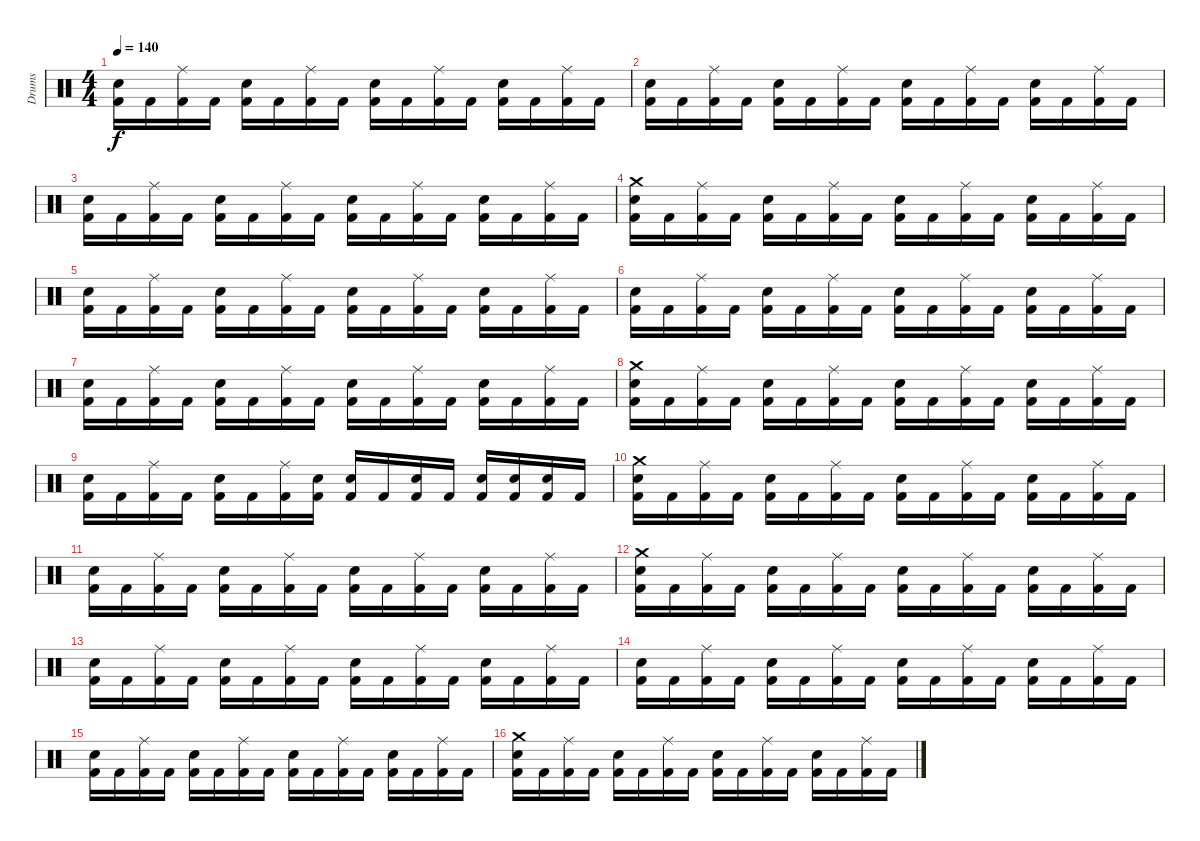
\track ("Drums" "Drums") {instrument percussion}
\staff {score}
\articulation defaults
\ts (4 4)
\tempo 140
\clef neutral
\ks c
("Electric Snare (hit)" "Kick (hit) 2").16{dy f} "Kick (hit) 2".16 ("Ride (middle)" "Kick (hit) 2").16 "Kick (hit) 2".16 ("Electric Snare (hit)" "Kick (hit) 2").16 "Kick (hit) 2".16 ("Ride (middle)" "Kick (hit) 2").16 "Kick (hit) 2".16 ("Electric Snare (hit)" "Kick (hit) 2").16 "Kick (hit) 2".16 ("Ride (middle)" "Kick (hit) 2").16 "Kick (hit) 2".16 ("Electric Snare (hit)" "Kick (hit) 2").16 "Kick (hit) 2".16 ("Ride (middle)" "Kick (hit) 2").16 "Kick (hit) 2".16 |
("Electric Snare (hit)" "Kick (hit) 2").16 "Kick (hit) 2".16 ("Ride (middle)" "Kick (hit) 2").16 "Kick (hit) 2".16 ("Electric Snare (hit)" "Kick (hit) 2").16 "Kick (hit) 2".16 ("Ride (middle)" "Kick (hit) 2").16 "Kick (hit) 2".16 ("Electric Snare (hit)" "Kick (hit) 2").16 "Kick (hit) 2".16 ("Ride (middle)" "Kick (hit) 2").16 "Kick (hit) 2".16 ("Electric Snare (hit)" "Kick (hit) 2").16 "Kick (hit) 2".16 ("Ride (middle)" "Kick (hit) 2").16 "Kick (hit) 2".16 |
("Electric Snare (hit)" "Kick (hit) 2").16 "Kick (hit) 2".16 ("Ride (middle)" "Kick (hit) 2").16 "Kick (hit) 2".16 ("Electric Snare (hit)" "Kick (hit) 2").16 "Kick (hit) 2".16 ("Ride (middle)" "Kick (hit) 2").16 "Kick (hit) 2".16 ("Electric Snare (hit)" "Kick (hit) 2").16 "Kick (hit) 2".16 ("Ride (middle)" "Kick (hit) 2").16 "Kick (hit) 2".16 ("Electric Snare (hit)" "Kick (hit) 2").16 "Kick (hit) 2".16 ("Ride (middle)" "Kick (hit) 2").16 "Kick (hit) 2".16 |
("Crash medium (hit)" "Electric Snare (hit)" "Kick (hit) 2").16 "Kick (hit) 2".16 ("Ride (middle)" "Kick (hit) 2").16 "Kick (hit) 2".16 ("Electric Snare (hit)" "Kick (hit) 2").16 "Kick (hit) 2".16 ("Ride (middle)" "Kick (hit) 2").16 "Kick (hit) 2".16 ("Electric Snare (hit)" "Kick (hit) 2").16 "Kick (hit) 2".16 ("Ride (middle)" "Kick (hit) 2").16 "Kick (hit) 2".16 ("Electric Snare (hit)" "Kick (hit) 2").16 "Kick (hit) 2".16 ("Ride (middle)" "Kick (hit) 2").16 "Kick (hit) 2".16 |
("Electric Snare (hit)" "Kick (hit) 2").16 "Kick (hit) 2".16 ("Ride (middle)" "Kick (hit) 2").16 "Kick (hit) 2".16 ("Electric Snare (hit)" "Kick (hit) 2").16 "Kick (hit) 2".16 ("Ride (middle)" "Kick (hit) 2").16 "Kick (hit) 2".16 ("Electric Snare (hit)" "Kick (hit) 2").16 "Kick (hit) 2".16 ("Ride (middle)" "Kick (hit) 2").16 "Kick (hit) 2".16 ("Electric Snare (hit)" "Kick (hit) 2").16 "Kick (hit) 2".16 ("Ride (middle)" "Kick (hit) 2").16 "Kick (hit) 2".16 |
("Electric Snare (hit)" "Kick (hit) 2").16 "Kick (hit) 2".16 ("Ride (middle)" "Kick (hit) 2").16 "Kick (hit) 2".16 ("Electric Snare (hit)" "Kick (hit) 2").16 "Kick (hit) 2".16 ("Ride (middle)" "Kick (hit) 2").16 "Kick (hit) 2".16 ("Electric Snare (hit)" "Kick (hit) 2").16 "Kick (hit) 2".16 ("Ride (middle)" "Kick (hit) 2").16 "Kick (hit) 2".16 ("Electric Snare (hit)" "Kick (hit) 2").16 "Kick (hit) 2".16 ("Ride (middle)" "Kick (hit) 2").16 "Kick (hit) 2".16 |
("Electric Snare (hit)" "Kick (hit) 2").16 "Kick (hit) 2".16 ("Ride (middle)" "Kick (hit) 2").16 "Kick (hit) 2".16 ("Electric Snare (hit)" "Kick (hit) 2").16 "Kick (hit) 2".16 ("Ride (middle)" "Kick (hit) 2").16 "Kick (hit) 2".16 ("Electric Snare (hit)" "Kick (hit) 2").16 "Kick (hit) 2".16 ("Ride (middle)" "Kick (hit) 2").16 "Kick (hit) 2".16 ("Electric Snare (hit)" "Kick (hit) 2").16 "Kick (hit) 2".16 ("Ride (middle)" "Kick (hit) 2").16 "Kick (hit) 2".16 |
("Crash medium (hit)" "Electric Snare (hit)" "Kick (hit) 2").16 "Kick (hit) 2".16 ("Ride (middle)" "Kick (hit) 2").16 "Kick (hit) 2".16 ("Electric Snare (hit)" "Kick (hit) 2").16 "Kick (hit) 2".16 ("Ride (middle)" "Kick (hit) 2").16 "Kick (hit) 2".16 ("Electric Snare (hit)" "Kick (hit) 2").16 "Kick (hit) 2".16 ("Ride (middle)" "Kick (hit) 2").16 "Kick (hit) 2".16 ("Electric Snare (hit)" "Kick (hit) 2").16 "Kick (hit) 2".16 ("Ride (middle)" "Kick (hit) 2").16 "Kick (hit) 2".16 |
("Electric Snare (hit)" "Kick (hit) 2").16 "Kick (hit) 2".16 ("Ride (middle)" "Kick (hit) 2").16 "Kick (hit) 2".16 ("Electric Snare (hit)" "Kick (hit) 2").16 "Kick (hit) 2".16 ("Ride (middle)" "Kick (hit) 2").16 ("Electric Snare (hit)" "Kick (hit) 2").16 ("Electric Snare (hit)" "Kick (hit) 2").16 "Kick (hit) 2".16 ("Electric Snare (hit)" "Kick (hit) 2").16 "Kick (hit) 2".16 ("Electric Snare (hit)" "Kick (hit) 2").16 ("Electric Snare (hit)" "Kick (hit) 2").16 ("Electric Snare (hit)" "Kick (hit) 2").16 "Kick (hit) 2".16 |
("Crash medium (hit)" "Electric Snare (hit)" "Kick (hit) 2").16 "Kick (hit) 2".16 ("Ride (middle)" "Kick (hit) 2").16 "Kick (hit) 2".16 ("Electric Snare (hit)" "Kick (hit) 2").16 "Kick (hit) 2".16 ("Ride (middle)" "Kick (hit) 2").16 "Kick (hit) 2".16 ("Electric Snare (hit)" "Kick (hit) 2").16 "Kick (hit) 2".16 ("Ride (middle)" "Kick (hit) 2").16 "Kick (hit) 2".16 ("Electric Snare (hit)" "Kick (hit) 2").16 "Kick (hit) 2".16 ("Ride (middle)" "Kick (hit) 2").16 "Kick (hit) 2".16 |
("Electric Snare (hit)" "Kick (hit) 2").16 "Kick (hit) 2".16 ("Ride (middle)" "Kick (hit) 2").16 "Kick (hit) 2".16 ("Electric Snare (hit)" "Kick (hit) 2").16 "Kick (hit) 2".16 ("Ride (middle)" "Kick (hit) 2").16 "Kick (hit) 2".16 ("Electric Snare (hit)" "Kick (hit) 2").16 "Kick (hit) 2".16 ("Ride (middle)" "Kick (hit) 2").16 "Kick (hit) 2".16 ("Electric Snare (hit)" "Kick (hit) 2").16 "Kick (hit) 2".16 ("Ride (middle)" "Kick (hit) 2").16 "Kick (hit) 2".16 |
("Crash medium (hit)" "Electric Snare (hit)" "Kick (hit) 2").16 "Kick (hit) 2".16 ("Ride (middle)" "Kick (hit) 2").16 "Kick (hit) 2".16 ("Electric Snare (hit)" "Kick (hit) 2").16 "Kick (hit) 2".16 ("Ride (middle)" "Kick (hit) 2").16 "Kick (hit) 2".16 ("Electric Snare (hit)" "Kick (hit) 2").16 "Kick (hit) 2".16 ("Ride (middle)" "Kick (hit) 2").16 "Kick (hit) 2".16 ("Electric Snare (hit)" "Kick (hit) 2").16 "Kick (hit) 2".16 ("Ride (middle)" "Kick (hit) 2").16 "Kick (hit) 2".16 |
("Electric Snare (hit)" "Kick (hit) 2").16 "Kick (hit) 2".16 ("Ride (middle)" "Kick (hit) 2").16 "Kick (hit) 2".16 ("Electric Snare (hit)" "Kick (hit) 2").16 "Kick (hit) 2".16 ("Ride (middle)" "Kick (hit) 2").16 "Kick (hit) 2".16 ("Electric Snare (hit)" "Kick (hit) 2").16 "Kick (hit) 2".16 ("Ride (middle)" "Kick (hit) 2").16 "Kick (hit) 2".16 ("Electric Snare (hit)" "Kick (hit) 2").16 "Kick (hit) 2".16 ("Ride (middle)" "Kick (hit) 2").16 "Kick (hit) 2".16 |
("Electric Snare (hit)" "Kick (hit) 2").16 "Kick (hit) 2".16 ("Ride (middle)" "Kick (hit) 2").16 "Kick (hit) 2".16 ("Electric Snare (hit)" "Kick (hit) 2").16 "Kick (hit) 2".16 ("Ride (middle)" "Kick (hit) 2").16 "Kick (hit) 2".16 ("Electric Snare (hit)" "Kick (hit) 2").16 "Kick (hit) 2".16 ("Ride (middle)" "Kick (hit) 2").16 "Kick (hit) 2".16 ("Electric Snare (hit)" "Kick (hit) 2").16 "Kick (hit) 2".16 ("Ride (middle)" "Kick (hit) 2").16 "Kick (hit) 2".16 |
("Electric Snare (hit)" "Kick (hit) 2").16 "Kick (hit) 2".16 ("Ride (middle)" "Kick (hit) 2").16 "Kick (hit) 2".16 ("Electric Snare (hit)" "Kick (hit) 2").16 "Kick (hit) 2".16 ("Ride (middle)" "Kick (hit) 2").16 "Kick (hit) 2".16 ("Electric Snare (hit)" "Kick (hit) 2").16 "Kick (hit) 2".16 ("Ride (middle)" "Kick (hit) 2").16 "Kick (hit) 2".16 ("Electric Snare (hit)" "Kick (hit) 2").16 "Kick (hit) 2".16 ("Ride (middle)" "Kick (hit) 2").16 "Kick (hit) 2".16 |
("Crash medium (hit)" "Electric Snare (hit)" "Kick (hit) 2").16 "Kick (hit) 2".16 ("Ride (middle)" "Kick (hit) 2").16 "Kick (hit) 2".16 ("Electric Snare (hit)" "Kick (hit) 2").16 "Kick (hit) 2".16 ("Ride (middle)" "Kick (hit) 2").16 "Kick (hit) 2".16 ("Electric Snare (hit)" "Kick (hit) 2").16 "Kick (hit) 2".16 ("Ride (middle)" "Kick (hit) 2").16 "Kick (hit) 2".16 ("Electric Snare (hit)" "Kick (hit) 2").16 "Kick (hit) 2".16 ("Ride (middle)" "Kick (hit) 2").16 "Kick (hit) 2".16
